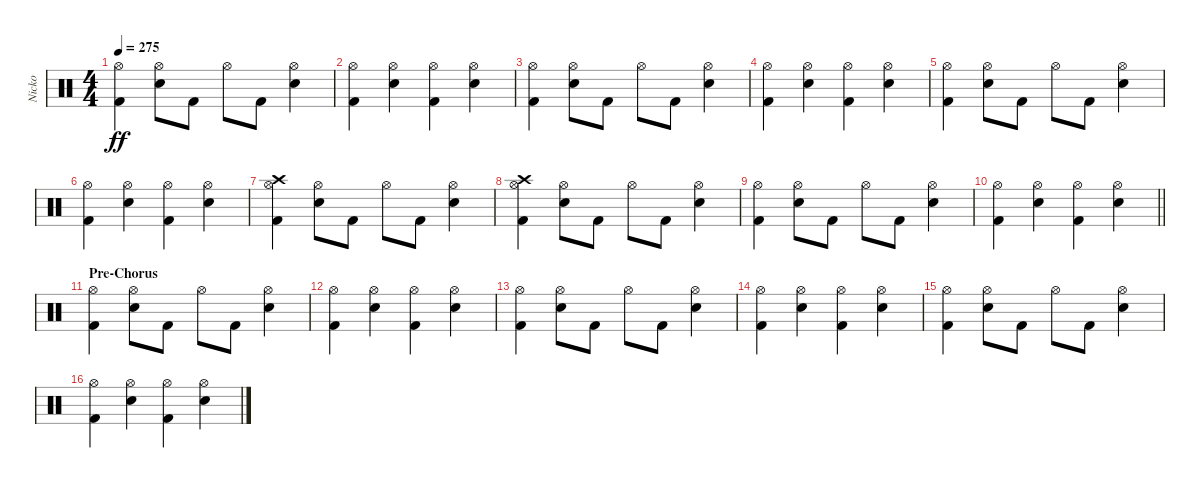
\track ("Nicko" "Nicko") {instrument percussion}
\staff {score}
\articulation defaults
\ts (4 4)
\tempo 275
\clef neutral
\ks c
("Kick (hit) 2" "Hi-Hat (open)").4{dy ff} ("Snare (hit) 2" "Hi-Hat (open)").8 "Kick (hit) 2".8 "Hi-Hat (open)".8 "Kick (hit) 2".8 ("Snare (hit) 2" "Hi-Hat (open)").4 |
("Kick (hit) 2" "Hi-Hat (open)").4 ("Snare (hit) 2" "Hi-Hat (open)").4 ("Kick (hit) 2" "Hi-Hat (open)").4 ("Snare (hit) 2" "Hi-Hat (open)").4 |
("Kick (hit) 2" "Hi-Hat (open)").4 ("Snare (hit) 2" "Hi-Hat (open)").8 "Kick (hit) 2".8 "Hi-Hat (open)".8 "Kick (hit) 2".8 ("Snare (hit) 2" "Hi-Hat (open)").4 |
("Kick (hit) 2" "Hi-Hat (open)").4 ("Snare (hit) 2" "Hi-Hat (open)").4 ("Kick (hit) 2" "Hi-Hat (open)").4 ("Snare (hit) 2" "Hi-Hat (open)").4 |
("Kick (hit) 2" "Hi-Hat (open)").4 ("Snare (hit) 2" "Hi-Hat (open)").8 "Kick (hit) 2".8 "Hi-Hat (open)".8 "Kick (hit) 2".8 ("Snare (hit) 2" "Hi-Hat (open)").4 |
("Kick (hit) 2" "Hi-Hat (open)").4 ("Snare (hit) 2" "Hi-Hat (open)").4 ("Kick (hit) 2" "Hi-Hat (open)").4 ("Snare (hit) 2" "Hi-Hat (open)").4 |
("Kick (hit) 2" "Hi-Hat (open)" "Crash high (hit)").4 ("Snare (hit) 2" "Hi-Hat (open)").8 "Kick (hit) 2".8 "Hi-Hat (open)".8 "Kick (hit) 2".8 ("Snare (hit) 2" "Hi-Hat (open)").4 |
("Kick (hit) 2" "Hi-Hat (open)" "Crash high (hit)").4 ("Snare (hit) 2" "Hi-Hat (open)").8 "Kick (hit) 2".8 "Hi-Hat (open)".8 "Kick (hit) 2".8 ("Snare (hit) 2" "Hi-Hat (open)").4 |
("Kick (hit) 2" "Hi-Hat (open)").4 ("Snare (hit) 2" "Hi-Hat (open)").8 "Kick (hit) 2".8 "Hi-Hat (open)".8 "Kick (hit) 2".8 ("Snare (hit) 2" "Hi-Hat (open)").4 |
\barLineRight lightlight
("Kick (hit) 2" "Hi-Hat (open)").4 ("Snare (hit) 2" "Hi-Hat (open)").4 ("Kick (hit) 2" "Hi-Hat (open)").4 ("Snare (hit) 2" "Hi-Hat (open)").4 |
\section ("" "Pre-Chorus")
("Kick (hit) 2" "Hi-Hat (open)").4 ("Snare (hit) 2" "Hi-Hat (open)").8 "Kick (hit) 2".8 "Hi-Hat (open)".8 "Kick (hit) 2".8 ("Snare (hit) 2" "Hi-Hat (open)").4 |
("Kick (hit) 2" "Hi-Hat (open)").4 ("Snare (hit) 2" "Hi-Hat (open)").4 ("Kick (hit) 2" "Hi-Hat (open)").4 ("Snare (hit) 2" "Hi-Hat (open)").4 |
("Kick (hit) 2" "Hi-Hat (open)").4 ("Snare (hit) 2" "Hi-Hat (open)").8 "Kick (hit) 2".8 "Hi-Hat (open)".8 "Kick (hit) 2".8 ("Snare (hit) 2" "Hi-Hat (open)").4 |
("Kick (hit) 2" "Hi-Hat (open)").4 ("Snare (hit) 2" "Hi-Hat (open)").4 ("Kick (hit) 2" "Hi-Hat (open)").4 ("Snare (hit) 2" "Hi-Hat (open)").4 |
("Kick (hit) 2" "Hi-Hat (open)").4 ("Snare (hit) 2" "Hi-Hat (open)").8 "Kick (hit) 2".8 "Hi-Hat (open)".8 "Kick (hit) 2".8 ("Snare (hit) 2" "Hi-Hat (open)").4 |
("Kick (hit) 2" "Hi-Hat (open)").4 ("Snare (hit) 2" "Hi-Hat (open)").4 ("Kick (hit) 2" "Hi-Hat (open)").4 ("Snare (hit) 2" "Hi-Hat (open)").4
